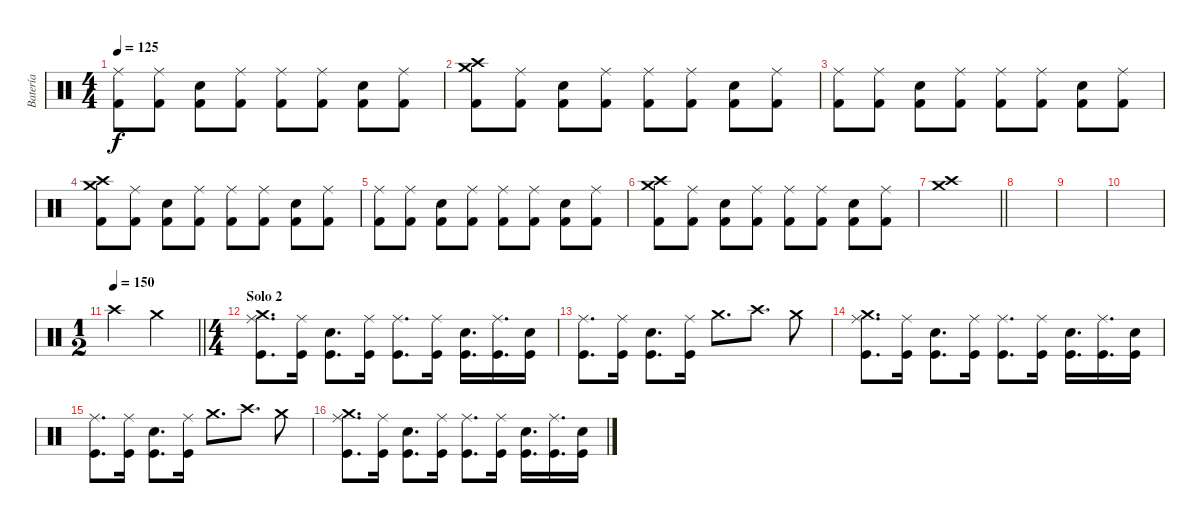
\track ("Batería" "Batería") {instrument percussion}
\staff {score}
\articulation defaults
\ts (4 4)
\tempo 125
\clef neutral
\ks c
("Ride (middle)" "Kick (hit) 2").8{dy f} ("Ride (middle)" "Kick (hit) 2").8 ("Electric Snare (hit)" "Kick (hit) 2").8 ("Ride (middle)" "Kick (hit) 2").8 ("Ride (middle)" "Kick (hit) 2").8 ("Ride (middle)" "Kick (hit) 2").8 ("Electric Snare (hit)" "Kick (hit) 2").8 ("Ride (middle)" "Kick (hit) 2").8 |
("Crash medium (hit)" "Crash high (hit)" "Kick (hit) 2").8 ("Ride (middle)" "Kick (hit) 2").8 ("Electric Snare (hit)" "Kick (hit) 2").8 ("Ride (middle)" "Kick (hit) 2").8 ("Ride (middle)" "Kick (hit) 2").8 ("Ride (middle)" "Kick (hit) 2").8 ("Electric Snare (hit)" "Kick (hit) 2").8 ("Ride (middle)" "Kick (hit) 2").8 |
("Ride (middle)" "Kick (hit) 2").8 ("Ride (middle)" "Kick (hit) 2").8 ("Electric Snare (hit)" "Kick (hit) 2").8 ("Ride (middle)" "Kick (hit) 2").8 ("Ride (middle)" "Kick (hit) 2").8 ("Ride (middle)" "Kick (hit) 2").8 ("Electric Snare (hit)" "Kick (hit) 2").8 ("Ride (middle)" "Kick (hit) 2").8 |
("Crash medium (hit)" "Crash high (hit)" "Kick (hit) 2").8 ("Ride (middle)" "Kick (hit) 2").8 ("Electric Snare (hit)" "Kick (hit) 2").8 ("Ride (middle)" "Kick (hit) 2").8 ("Ride (middle)" "Kick (hit) 2").8 ("Ride (middle)" "Kick (hit) 2").8 ("Electric Snare (hit)" "Kick (hit) 2").8 ("Ride (middle)" "Kick (hit) 2").8 |
("Ride (middle)" "Kick (hit) 2").8 ("Ride (middle)" "Kick (hit) 2").8 ("Electric Snare (hit)" "Kick (hit) 2").8 ("Ride (middle)" "Kick (hit) 2").8 ("Ride (middle)" "Kick (hit) 2").8 ("Ride (middle)" "Kick (hit) 2").8 ("Electric Snare (hit)" "Kick (hit) 2").8 ("Ride (middle)" "Kick (hit) 2").8 |
("Crash medium (hit)" "Crash high (hit)" "Kick (hit) 2").8 ("Ride (middle)" "Kick (hit) 2").8 ("Electric Snare (hit)" "Kick (hit) 2").8 ("Ride (middle)" "Kick (hit) 2").8 ("Ride (middle)" "Kick (hit) 2").8 ("Ride (middle)" "Kick (hit) 2").8 ("Electric Snare (hit)" "Kick (hit) 2").8 ("Ride (middle)" "Kick (hit) 2").8 |
\barLineRight lightlight
("Crash medium (hit)" "Crash high (hit)").1 |
|
|
|
\ts (1 2)
\tempo 150
\barLineRight lightlight "Crash high (hit)".4 "Crash medium (hit)".4
|
\ts (4 4)
\section ("" "Solo 2")
("Ride (middle)" "Crash medium (hit)" "Kick (hit)").8{d} ("Ride (middle)" "Kick (hit)").16 ("Electric Snare (hit)" "Kick (hit)").8{d} ("Ride (middle)" "Kick (hit)").16 ("Ride (middle)" "Kick (hit)").8{d} ("Ride (middle)" "Kick (hit)").16 ("Electric Snare (hit)" "Kick (hit)").16{d} ("Ride (middle)" "Kick (hit)").16{d} ("Electric Snare (hit)" "Kick (hit)").16 |
("Ride (middle)" "Kick (hit)").8{d} ("Ride (middle)" "Kick (hit)").16 ("Electric Snare (hit)" "Kick (hit)").8{d} ("Ride (middle)" "Kick (hit)").16 "Crash medium (hit)".8{d} "Crash high (hit)".8{d} "Crash medium (hit)".8 |
("Ride (middle)" "Crash medium (hit)" "Kick (hit)").8{d} ("Ride (middle)" "Kick (hit)").16 ("Electric Snare (hit)" "Kick (hit)").8{d} ("Ride (middle)" "Kick (hit)").16 ("Ride (middle)" "Kick (hit)").8{d} ("Ride (middle)" "Kick (hit)").16 ("Electric Snare (hit)" "Kick (hit)").16{d} ("Ride (middle)" "Kick (hit)").16{d} ("Electric Snare (hit)" "Kick (hit)").16 |
("Ride (middle)" "Kick (hit)").8{d} ("Ride (middle)" "Kick (hit)").16 ("Electric Snare (hit)" "Kick (hit)").8{d} ("Ride (middle)" "Kick (hit)").16 "Crash medium (hit)".8{d} "Crash high (hit)".8{d} "Crash medium (hit)".8 |
("Ride (middle)" "Crash medium (hit)" "Kick (hit)").8{d} ("Ride (middle)" "Kick (hit)").16 ("Electric Snare (hit)" "Kick (hit)").8{d} ("Ride (middle)" "Kick (hit)").16 ("Ride (middle)" "Kick (hit)").8{d} ("Ride (middle)" "Kick (hit)").16 ("Electric Snare (hit)" "Kick (hit)").16{d} ("Ride (middle)" "Kick (hit)").16{d} ("Electric Snare (hit)" "Kick (hit)").16
